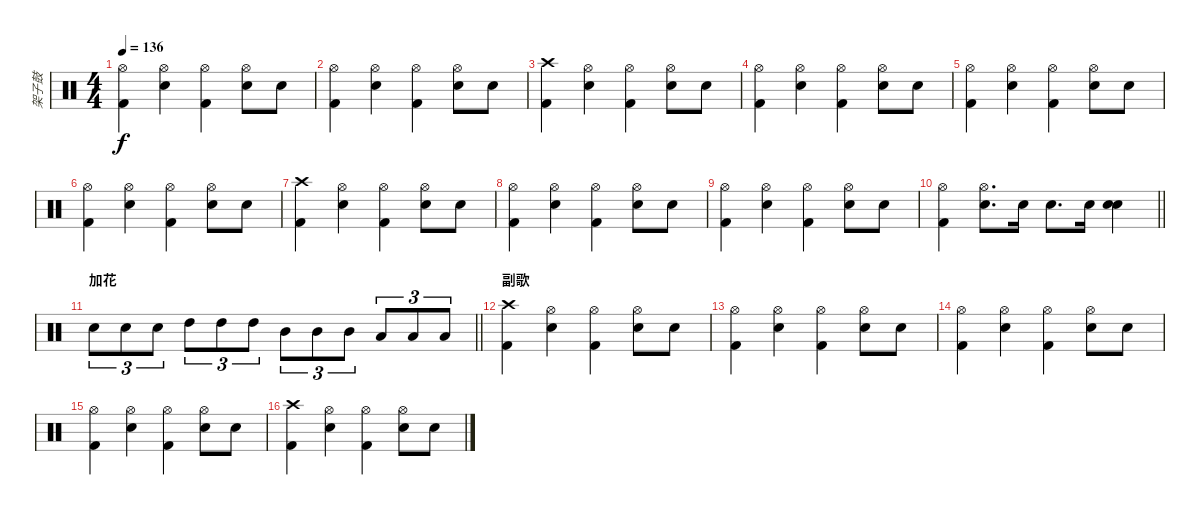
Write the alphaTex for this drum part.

\track ("架子鼓" "架子鼓") {instrument percussion}
\staff {score}
\articulation defaults
\ts (4 4)
\tempo 136
\clef neutral
\ks c
("Hi-Hat (open)" "Kick (hit) 2").4{dy f} ("Hi-Hat (open)" "Electric Snare (hit)").4 ("Hi-Hat (open)" "Kick (hit) 2").4 ("Hi-Hat (open)" "Electric Snare (hit)").8 "Electric Snare (hit)".8 |
("Hi-Hat (open)" "Kick (hit) 2").4 ("Hi-Hat (open)" "Electric Snare (hit)").4 ("Hi-Hat (open)" "Kick (hit) 2").4 ("Hi-Hat (open)" "Electric Snare (hit)").8 "Electric Snare (hit)".8 |
("Crash high (hit)" "Kick (hit) 2").4 ("Hi-Hat (open)" "Electric Snare (hit)").4 ("Hi-Hat (open)" "Kick (hit) 2").4 ("Hi-Hat (open)" "Electric Snare (hit)").8 "Electric Snare (hit)".8 |
("Hi-Hat (open)" "Kick (hit) 2").4 ("Hi-Hat (open)" "Electric Snare (hit)").4 ("Hi-Hat (open)" "Kick (hit) 2").4 ("Hi-Hat (open)" "Electric Snare (hit)").8 "Electric Snare (hit)".8 |
("Hi-Hat (open)" "Kick (hit) 2").4 ("Hi-Hat (open)" "Electric Snare (hit)").4 ("Hi-Hat (open)" "Kick (hit) 2").4 ("Hi-Hat (open)" "Electric Snare (hit)").8 "Electric Snare (hit)".8 |
("Hi-Hat (open)" "Kick (hit) 2").4 ("Hi-Hat (open)" "Electric Snare (hit)").4 ("Hi-Hat (open)" "Kick (hit) 2").4 ("Hi-Hat (open)" "Electric Snare (hit)").8 "Electric Snare (hit)".8 |
("Crash high (hit)" "Kick (hit) 2").4 ("Hi-Hat (open)" "Electric Snare (hit)").4 ("Hi-Hat (open)" "Kick (hit) 2").4 ("Hi-Hat (open)" "Electric Snare (hit)").8 "Electric Snare (hit)".8 |
("Hi-Hat (open)" "Kick (hit) 2").4 ("Hi-Hat (open)" "Electric Snare (hit)").4 ("Hi-Hat (open)" "Kick (hit) 2").4 ("Hi-Hat (open)" "Electric Snare (hit)").8 "Electric Snare (hit)".8 |
("Hi-Hat (open)" "Kick (hit) 2").4 ("Hi-Hat (open)" "Electric Snare (hit)").4 ("Hi-Hat (open)" "Kick (hit) 2").4 ("Hi-Hat (open)" "Electric Snare (hit)").8 "Electric Snare (hit)".8 |
\barLineRight lightlight
("Hi-Hat (open)" "Kick (hit) 2").4 ("Hi-Hat (open)" "Electric Snare (hit)").8{d} "Electric Snare (hit)".16 "Electric Snare (hit)".8{d} "Electric Snare (hit)".16 ("Electric Snare (hit)" "Electric Snare (hit)").4 |
\section ("" "加花")
\barLineRight lightlight "Electric Snare (hit)".8{tu (3 2)} "Electric Snare (hit)".8{tu (3 2)} "Electric Snare (hit)".8{tu (3 2)} "High Tom (hit)".8{tu (3 2)} "High Tom (hit)".8{tu (3 2)} "High Tom (hit)".8{tu (3 2)} "Mid Tom (hit)".8{tu (3 2)} "Mid Tom (hit)".8{tu (3 2)} "Mid Tom (hit)".8{tu (3 2)} "Low Tom (hit)".8{tu (3 2)} "Low Tom (hit)".8{tu (3 2)} "Low Tom (hit)".8{tu (3 2)}
|
\section ("" "副歌")
("Crash high (hit)" "Kick (hit) 2").4 ("Hi-Hat (open)" "Electric Snare (hit)").4 ("Hi-Hat (open)" "Kick (hit) 2").4 ("Hi-Hat (open)" "Electric Snare (hit)").8 "Electric Snare (hit)".8 |
("Hi-Hat (open)" "Kick (hit) 2").4 ("Hi-Hat (open)" "Electric Snare (hit)").4 ("Hi-Hat (open)" "Kick (hit) 2").4 ("Hi-Hat (open)" "Electric Snare (hit)").8 "Electric Snare (hit)".8 |
("Hi-Hat (open)" "Kick (hit) 2").4 ("Hi-Hat (open)" "Electric Snare (hit)").4 ("Hi-Hat (open)" "Kick (hit) 2").4 ("Hi-Hat (open)" "Electric Snare (hit)").8 "Electric Snare (hit)".8 |
("Hi-Hat (open)" "Kick (hit) 2").4 ("Hi-Hat (open)" "Electric Snare (hit)").4 ("Hi-Hat (open)" "Kick (hit) 2").4 ("Hi-Hat (open)" "Electric Snare (hit)").8 "Electric Snare (hit)".8 |
("Crash high (hit)" "Kick (hit) 2").4 ("Hi-Hat (open)" "Electric Snare (hit)").4 ("Hi-Hat (open)" "Kick (hit) 2").4 ("Hi-Hat (open)" "Electric Snare (hit)").8 "Electric Snare (hit)".8
